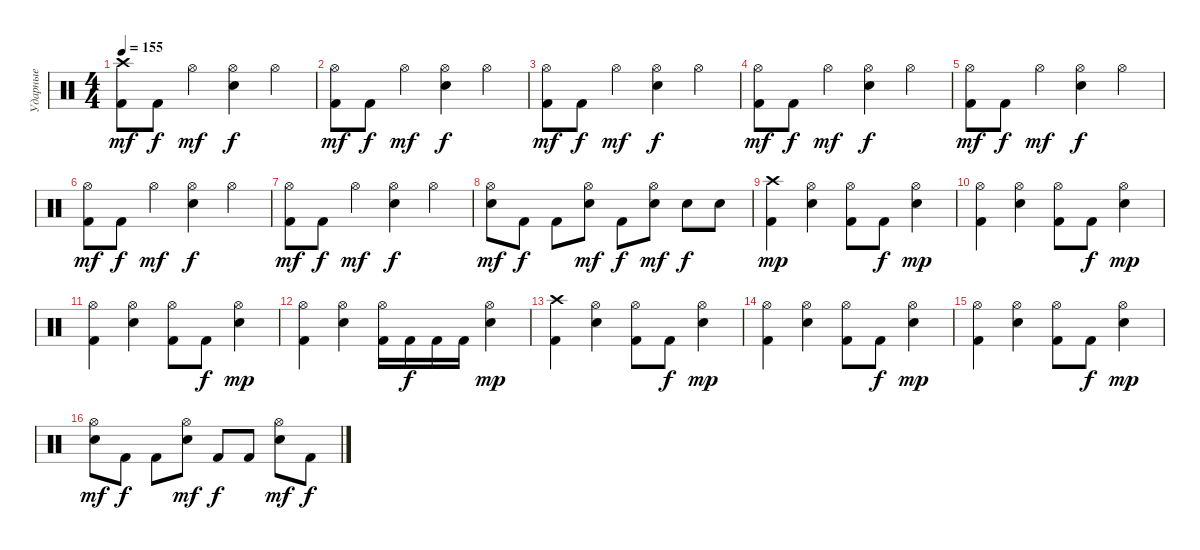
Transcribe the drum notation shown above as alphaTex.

\track ("Ударные" "Ударные") {instrument percussion}
\staff {score}
\articulation defaults
\ts (4 4)
\tempo 155
\clef neutral
\ks c
("Kick (hit) 2" "Crash high (hit)").8{dy mf} "Kick (hit) 2".8{dy f} "Hi-Hat (open)".4{dy mf} ("Snare (hit) 2" "Hi-Hat (open)").4{dy f} "Hi-Hat (open)".4 |
("Kick (hit) 2" "Hi-Hat (open)").8{dy mf} "Kick (hit) 2".8{dy f} "Hi-Hat (open)".4{dy mf} ("Snare (hit) 2" "Hi-Hat (open)").4{dy f} "Hi-Hat (open)".4 |
("Kick (hit) 2" "Hi-Hat (open)").8{dy mf} "Kick (hit) 2".8{dy f} "Hi-Hat (open)".4{dy mf} ("Snare (hit) 2" "Hi-Hat (open)").4{dy f} "Hi-Hat (open)".4 |
("Kick (hit) 2" "Hi-Hat (open)").8{dy mf} "Kick (hit) 2".8{dy f} "Hi-Hat (open)".4{dy mf} ("Snare (hit) 2" "Hi-Hat (open)").4{dy f} "Hi-Hat (open)".4 |
("Kick (hit) 2" "Hi-Hat (open)").8{dy mf} "Kick (hit) 2".8{dy f} "Hi-Hat (open)".4{dy mf} ("Snare (hit) 2" "Hi-Hat (open)").4{dy f} "Hi-Hat (open)".4 |
("Kick (hit) 2" "Hi-Hat (open)").8{dy mf} "Kick (hit) 2".8{dy f} "Hi-Hat (open)".4{dy mf} ("Snare (hit) 2" "Hi-Hat (open)").4{dy f} "Hi-Hat (open)".4 |
("Kick (hit) 2" "Hi-Hat (open)").8{dy mf} "Kick (hit) 2".8{dy f} "Hi-Hat (open)".4{dy mf} ("Snare (hit) 2" "Hi-Hat (open)").4{dy f} "Hi-Hat (open)".4 |
("Snare (hit) 2" "Hi-Hat (open)").8{dy mf} "Kick (hit) 2".8{dy f} "Kick (hit) 2".8 ("Snare (hit) 2" "Hi-Hat (open)").8{dy mf} "Kick (hit) 2".8{dy f} ("Snare (hit) 2" "Hi-Hat (open)").8{dy mf} "Snare (hit) 2".8{dy f} "Snare (hit) 2".8 |
("Kick (hit) 2" "Crash high (hit)").4{dy mp} ("Snare (hit) 2" "Hi-Hat (open)").4 ("Kick (hit) 2" "Hi-Hat (open)").8 "Kick (hit) 2".8{dy f} ("Snare (hit) 2" "Hi-Hat (open)").4{dy mp} |
("Kick (hit) 2" "Hi-Hat (open)").4 ("Snare (hit) 2" "Hi-Hat (open)").4 ("Kick (hit) 2" "Hi-Hat (open)").8 "Kick (hit) 2".8{dy f} ("Snare (hit) 2" "Hi-Hat (open)").4{dy mp} |
("Kick (hit) 2" "Hi-Hat (open)").4 ("Snare (hit) 2" "Hi-Hat (open)").4 ("Kick (hit) 2" "Hi-Hat (open)").8 "Kick (hit) 2".8{dy f} ("Snare (hit) 2" "Hi-Hat (open)").4{dy mp} |
("Kick (hit) 2" "Hi-Hat (open)").4 ("Snare (hit) 2" "Hi-Hat (open)").4 ("Kick (hit) 2" "Hi-Hat (open)").16 "Kick (hit) 2".16{dy f} "Kick (hit) 2".16 "Kick (hit) 2".16 ("Snare (hit) 2" "Hi-Hat (open)").4{dy mp} |
("Kick (hit) 2" "Crash high (hit)").4 ("Snare (hit) 2" "Hi-Hat (open)").4 ("Kick (hit) 2" "Hi-Hat (open)").8 "Kick (hit) 2".8{dy f} ("Snare (hit) 2" "Hi-Hat (open)").4{dy mp} |
("Kick (hit) 2" "Hi-Hat (open)").4 ("Snare (hit) 2" "Hi-Hat (open)").4 ("Kick (hit) 2" "Hi-Hat (open)").8 "Kick (hit) 2".8{dy f} ("Snare (hit) 2" "Hi-Hat (open)").4{dy mp} |
("Kick (hit) 2" "Hi-Hat (open)").4 ("Snare (hit) 2" "Hi-Hat (open)").4 ("Kick (hit) 2" "Hi-Hat (open)").8 "Kick (hit) 2".8{dy f} ("Snare (hit) 2" "Hi-Hat (open)").4{dy mp} |
("Snare (hit) 2" "Hi-Hat (open)").8{dy mf} "Kick (hit) 2".8{dy f} "Kick (hit) 2".8 ("Snare (hit) 2" "Hi-Hat (open)").8{dy mf} "Kick (hit) 2".8{dy f} "Kick (hit) 2".8 ("Snare (hit) 2" "Hi-Hat (open)").8{dy mf} "Kick (hit) 2".8{dy f}
